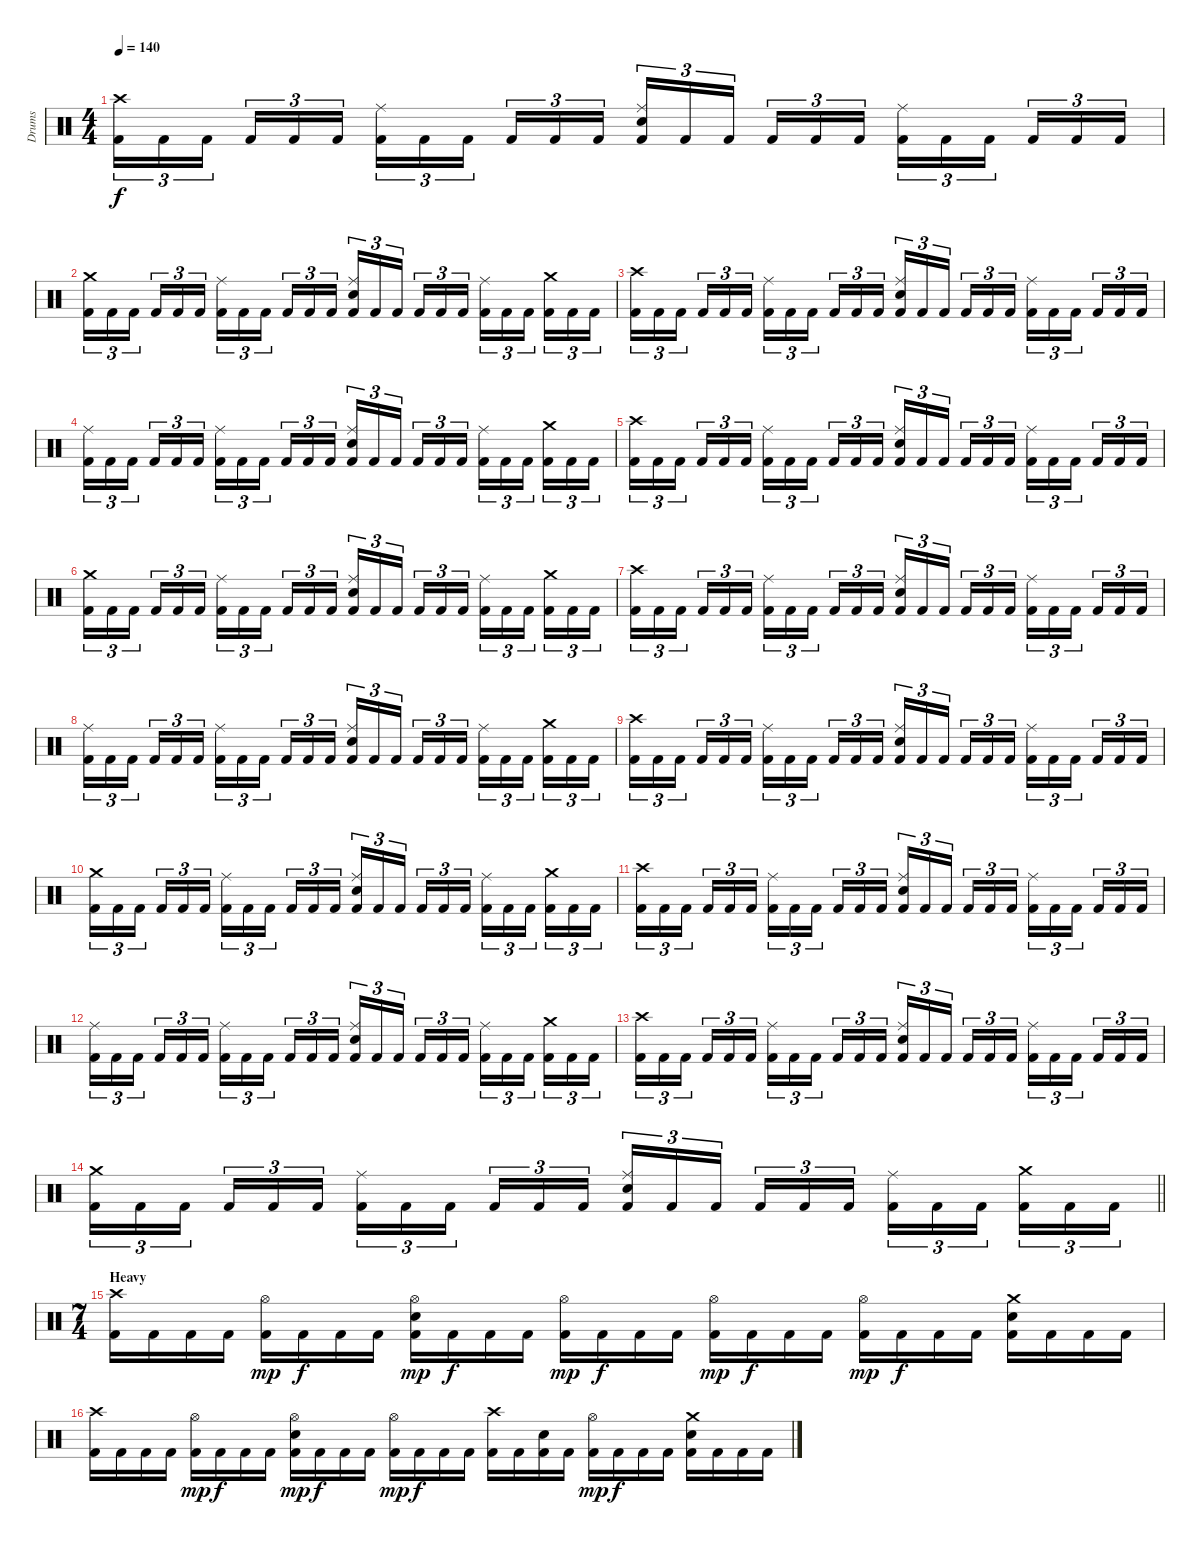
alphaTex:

\track ("Drums" "Drums") {instrument percussion}
\staff {score}
\articulation defaults
\ts (4 4)
\tempo 140
\clef neutral
\ks c
("Crash high (hit)" "Kick (hit) 2").16{tu (3 2) dy f} "Kick (hit) 2".16{tu (3 2)} "Kick (hit) 2".16{tu (3 2) beam splitsecondary} "Kick (hit) 2".16{tu (3 2)} "Kick (hit) 2".16{tu (3 2)} "Kick (hit) 2".16{tu (3 2)} ("Ride (middle)" "Kick (hit) 2").16{tu (3 2)} "Kick (hit) 2".16{tu (3 2)} "Kick (hit) 2".16{tu (3 2) beam splitsecondary} "Kick (hit) 2".16{tu (3 2)} "Kick (hit) 2".16{tu (3 2)} "Kick (hit) 2".16{tu (3 2)} ("Ride (middle)" "Snare (hit) 2" "Kick (hit) 2").16{tu (3 2)} "Kick (hit) 2".16{tu (3 2)} "Kick (hit) 2".16{tu (3 2) beam splitsecondary} "Kick (hit) 2".16{tu (3 2)} "Kick (hit) 2".16{tu (3 2)} "Kick (hit) 2".16{tu (3 2)} ("Ride (middle)" "Kick (hit) 2").16{tu (3 2)} "Kick (hit) 2".16{tu (3 2)} "Kick (hit) 2".16{tu (3 2) beam splitsecondary} "Kick (hit) 2".16{tu (3 2)} "Kick (hit) 2".16{tu (3 2)} "Kick (hit) 2".16{tu (3 2)} |
("Crash medium (hit)" "Kick (hit) 2").16{tu (3 2)} "Kick (hit) 2".16{tu (3 2)} "Kick (hit) 2".16{tu (3 2) beam splitsecondary} "Kick (hit) 2".16{tu (3 2)} "Kick (hit) 2".16{tu (3 2)} "Kick (hit) 2".16{tu (3 2)} ("Ride (middle)" "Kick (hit) 2").16{tu (3 2)} "Kick (hit) 2".16{tu (3 2)} "Kick (hit) 2".16{tu (3 2) beam splitsecondary} "Kick (hit) 2".16{tu (3 2)} "Kick (hit) 2".16{tu (3 2)} "Kick (hit) 2".16{tu (3 2)} ("Ride (middle)" "Snare (hit) 2" "Kick (hit) 2").16{tu (3 2)} "Kick (hit) 2".16{tu (3 2)} "Kick (hit) 2".16{tu (3 2) beam splitsecondary} "Kick (hit) 2".16{tu (3 2)} "Kick (hit) 2".16{tu (3 2)} "Kick (hit) 2".16{tu (3 2)} ("Ride (middle)" "Kick (hit) 2").16{tu (3 2)} "Kick (hit) 2".16{tu (3 2)} "Kick (hit) 2".16{tu (3 2) beam splitsecondary} ("Crash medium (hit)" "Kick (hit) 2").16{tu (3 2)} "Kick (hit) 2".16{tu (3 2)} "Kick (hit) 2".16{tu (3 2)} |
("Crash high (hit)" "Kick (hit) 2").16{tu (3 2)} "Kick (hit) 2".16{tu (3 2)} "Kick (hit) 2".16{tu (3 2) beam splitsecondary} "Kick (hit) 2".16{tu (3 2)} "Kick (hit) 2".16{tu (3 2)} "Kick (hit) 2".16{tu (3 2)} ("Ride (middle)" "Kick (hit) 2").16{tu (3 2)} "Kick (hit) 2".16{tu (3 2)} "Kick (hit) 2".16{tu (3 2) beam splitsecondary} "Kick (hit) 2".16{tu (3 2)} "Kick (hit) 2".16{tu (3 2)} "Kick (hit) 2".16{tu (3 2)} ("Ride (middle)" "Snare (hit) 2" "Kick (hit) 2").16{tu (3 2)} "Kick (hit) 2".16{tu (3 2)} "Kick (hit) 2".16{tu (3 2) beam splitsecondary} "Kick (hit) 2".16{tu (3 2)} "Kick (hit) 2".16{tu (3 2)} "Kick (hit) 2".16{tu (3 2)} ("Ride (middle)" "Kick (hit) 2").16{tu (3 2)} "Kick (hit) 2".16{tu (3 2)} "Kick (hit) 2".16{tu (3 2) beam splitsecondary} "Kick (hit) 2".16{tu (3 2)} "Kick (hit) 2".16{tu (3 2)} "Kick (hit) 2".16{tu (3 2)} |
("Ride (middle)" "Kick (hit) 2").16{tu (3 2)} "Kick (hit) 2".16{tu (3 2)} "Kick (hit) 2".16{tu (3 2) beam splitsecondary} "Kick (hit) 2".16{tu (3 2)} "Kick (hit) 2".16{tu (3 2)} "Kick (hit) 2".16{tu (3 2)} ("Ride (middle)" "Kick (hit) 2").16{tu (3 2)} "Kick (hit) 2".16{tu (3 2)} "Kick (hit) 2".16{tu (3 2) beam splitsecondary} "Kick (hit) 2".16{tu (3 2)} "Kick (hit) 2".16{tu (3 2)} "Kick (hit) 2".16{tu (3 2)} ("Ride (middle)" "Snare (hit) 2" "Kick (hit) 2").16{tu (3 2)} "Kick (hit) 2".16{tu (3 2)} "Kick (hit) 2".16{tu (3 2) beam splitsecondary} "Kick (hit) 2".16{tu (3 2)} "Kick (hit) 2".16{tu (3 2)} "Kick (hit) 2".16{tu (3 2)} ("Ride (middle)" "Kick (hit) 2").16{tu (3 2)} "Kick (hit) 2".16{tu (3 2)} "Kick (hit) 2".16{tu (3 2) beam splitsecondary} ("Crash medium (hit)" "Kick (hit) 2").16{tu (3 2)} "Kick (hit) 2".16{tu (3 2)} "Kick (hit) 2".16{tu (3 2)} |
("Crash high (hit)" "Kick (hit) 2").16{tu (3 2)} "Kick (hit) 2".16{tu (3 2)} "Kick (hit) 2".16{tu (3 2) beam splitsecondary} "Kick (hit) 2".16{tu (3 2)} "Kick (hit) 2".16{tu (3 2)} "Kick (hit) 2".16{tu (3 2)} ("Ride (middle)" "Kick (hit) 2").16{tu (3 2)} "Kick (hit) 2".16{tu (3 2)} "Kick (hit) 2".16{tu (3 2) beam splitsecondary} "Kick (hit) 2".16{tu (3 2)} "Kick (hit) 2".16{tu (3 2)} "Kick (hit) 2".16{tu (3 2)} ("Ride (middle)" "Snare (hit) 2" "Kick (hit) 2").16{tu (3 2)} "Kick (hit) 2".16{tu (3 2)} "Kick (hit) 2".16{tu (3 2) beam splitsecondary} "Kick (hit) 2".16{tu (3 2)} "Kick (hit) 2".16{tu (3 2)} "Kick (hit) 2".16{tu (3 2)} ("Ride (middle)" "Kick (hit) 2").16{tu (3 2)} "Kick (hit) 2".16{tu (3 2)} "Kick (hit) 2".16{tu (3 2) beam splitsecondary} "Kick (hit) 2".16{tu (3 2)} "Kick (hit) 2".16{tu (3 2)} "Kick (hit) 2".16{tu (3 2)} |
("Crash medium (hit)" "Kick (hit) 2").16{tu (3 2)} "Kick (hit) 2".16{tu (3 2)} "Kick (hit) 2".16{tu (3 2) beam splitsecondary} "Kick (hit) 2".16{tu (3 2)} "Kick (hit) 2".16{tu (3 2)} "Kick (hit) 2".16{tu (3 2)} ("Ride (middle)" "Kick (hit) 2").16{tu (3 2)} "Kick (hit) 2".16{tu (3 2)} "Kick (hit) 2".16{tu (3 2) beam splitsecondary} "Kick (hit) 2".16{tu (3 2)} "Kick (hit) 2".16{tu (3 2)} "Kick (hit) 2".16{tu (3 2)} ("Ride (middle)" "Snare (hit) 2" "Kick (hit) 2").16{tu (3 2)} "Kick (hit) 2".16{tu (3 2)} "Kick (hit) 2".16{tu (3 2) beam splitsecondary} "Kick (hit) 2".16{tu (3 2)} "Kick (hit) 2".16{tu (3 2)} "Kick (hit) 2".16{tu (3 2)} ("Ride (middle)" "Kick (hit) 2").16{tu (3 2)} "Kick (hit) 2".16{tu (3 2)} "Kick (hit) 2".16{tu (3 2) beam splitsecondary} ("Crash medium (hit)" "Kick (hit) 2").16{tu (3 2)} "Kick (hit) 2".16{tu (3 2)} "Kick (hit) 2".16{tu (3 2)} |
("Crash high (hit)" "Kick (hit) 2").16{tu (3 2)} "Kick (hit) 2".16{tu (3 2)} "Kick (hit) 2".16{tu (3 2) beam splitsecondary} "Kick (hit) 2".16{tu (3 2)} "Kick (hit) 2".16{tu (3 2)} "Kick (hit) 2".16{tu (3 2)} ("Ride (middle)" "Kick (hit) 2").16{tu (3 2)} "Kick (hit) 2".16{tu (3 2)} "Kick (hit) 2".16{tu (3 2) beam splitsecondary} "Kick (hit) 2".16{tu (3 2)} "Kick (hit) 2".16{tu (3 2)} "Kick (hit) 2".16{tu (3 2)} ("Ride (middle)" "Snare (hit) 2" "Kick (hit) 2").16{tu (3 2)} "Kick (hit) 2".16{tu (3 2)} "Kick (hit) 2".16{tu (3 2) beam splitsecondary} "Kick (hit) 2".16{tu (3 2)} "Kick (hit) 2".16{tu (3 2)} "Kick (hit) 2".16{tu (3 2)} ("Ride (middle)" "Kick (hit) 2").16{tu (3 2)} "Kick (hit) 2".16{tu (3 2)} "Kick (hit) 2".16{tu (3 2) beam splitsecondary} "Kick (hit) 2".16{tu (3 2)} "Kick (hit) 2".16{tu (3 2)} "Kick (hit) 2".16{tu (3 2)} |
("Ride (middle)" "Kick (hit) 2").16{tu (3 2)} "Kick (hit) 2".16{tu (3 2)} "Kick (hit) 2".16{tu (3 2) beam splitsecondary} "Kick (hit) 2".16{tu (3 2)} "Kick (hit) 2".16{tu (3 2)} "Kick (hit) 2".16{tu (3 2)} ("Ride (middle)" "Kick (hit) 2").16{tu (3 2)} "Kick (hit) 2".16{tu (3 2)} "Kick (hit) 2".16{tu (3 2) beam splitsecondary} "Kick (hit) 2".16{tu (3 2)} "Kick (hit) 2".16{tu (3 2)} "Kick (hit) 2".16{tu (3 2)} ("Ride (middle)" "Snare (hit) 2" "Kick (hit) 2").16{tu (3 2)} "Kick (hit) 2".16{tu (3 2)} "Kick (hit) 2".16{tu (3 2) beam splitsecondary} "Kick (hit) 2".16{tu (3 2)} "Kick (hit) 2".16{tu (3 2)} "Kick (hit) 2".16{tu (3 2)} ("Ride (middle)" "Kick (hit) 2").16{tu (3 2)} "Kick (hit) 2".16{tu (3 2)} "Kick (hit) 2".16{tu (3 2) beam splitsecondary} ("Crash medium (hit)" "Kick (hit) 2").16{tu (3 2)} "Kick (hit) 2".16{tu (3 2)} "Kick (hit) 2".16{tu (3 2)} |
("Crash high (hit)" "Kick (hit) 2").16{tu (3 2)} "Kick (hit) 2".16{tu (3 2)} "Kick (hit) 2".16{tu (3 2) beam splitsecondary} "Kick (hit) 2".16{tu (3 2)} "Kick (hit) 2".16{tu (3 2)} "Kick (hit) 2".16{tu (3 2)} ("Ride (middle)" "Kick (hit) 2").16{tu (3 2)} "Kick (hit) 2".16{tu (3 2)} "Kick (hit) 2".16{tu (3 2) beam splitsecondary} "Kick (hit) 2".16{tu (3 2)} "Kick (hit) 2".16{tu (3 2)} "Kick (hit) 2".16{tu (3 2)} ("Ride (middle)" "Snare (hit) 2" "Kick (hit) 2").16{tu (3 2)} "Kick (hit) 2".16{tu (3 2)} "Kick (hit) 2".16{tu (3 2) beam splitsecondary} "Kick (hit) 2".16{tu (3 2)} "Kick (hit) 2".16{tu (3 2)} "Kick (hit) 2".16{tu (3 2)} ("Ride (middle)" "Kick (hit) 2").16{tu (3 2)} "Kick (hit) 2".16{tu (3 2)} "Kick (hit) 2".16{tu (3 2) beam splitsecondary} "Kick (hit) 2".16{tu (3 2)} "Kick (hit) 2".16{tu (3 2)} "Kick (hit) 2".16{tu (3 2)} |
("Crash medium (hit)" "Kick (hit) 2").16{tu (3 2)} "Kick (hit) 2".16{tu (3 2)} "Kick (hit) 2".16{tu (3 2) beam splitsecondary} "Kick (hit) 2".16{tu (3 2)} "Kick (hit) 2".16{tu (3 2)} "Kick (hit) 2".16{tu (3 2)} ("Ride (middle)" "Kick (hit) 2").16{tu (3 2)} "Kick (hit) 2".16{tu (3 2)} "Kick (hit) 2".16{tu (3 2) beam splitsecondary} "Kick (hit) 2".16{tu (3 2)} "Kick (hit) 2".16{tu (3 2)} "Kick (hit) 2".16{tu (3 2)} ("Ride (middle)" "Snare (hit) 2" "Kick (hit) 2").16{tu (3 2)} "Kick (hit) 2".16{tu (3 2)} "Kick (hit) 2".16{tu (3 2) beam splitsecondary} "Kick (hit) 2".16{tu (3 2)} "Kick (hit) 2".16{tu (3 2)} "Kick (hit) 2".16{tu (3 2)} ("Ride (middle)" "Kick (hit) 2").16{tu (3 2)} "Kick (hit) 2".16{tu (3 2)} "Kick (hit) 2".16{tu (3 2) beam splitsecondary} ("Crash medium (hit)" "Kick (hit) 2").16{tu (3 2)} "Kick (hit) 2".16{tu (3 2)} "Kick (hit) 2".16{tu (3 2)} |
("Crash high (hit)" "Kick (hit) 2").16{tu (3 2)} "Kick (hit) 2".16{tu (3 2)} "Kick (hit) 2".16{tu (3 2) beam splitsecondary} "Kick (hit) 2".16{tu (3 2)} "Kick (hit) 2".16{tu (3 2)} "Kick (hit) 2".16{tu (3 2)} ("Ride (middle)" "Kick (hit) 2").16{tu (3 2)} "Kick (hit) 2".16{tu (3 2)} "Kick (hit) 2".16{tu (3 2) beam splitsecondary} "Kick (hit) 2".16{tu (3 2)} "Kick (hit) 2".16{tu (3 2)} "Kick (hit) 2".16{tu (3 2)} ("Ride (middle)" "Snare (hit) 2" "Kick (hit) 2").16{tu (3 2)} "Kick (hit) 2".16{tu (3 2)} "Kick (hit) 2".16{tu (3 2) beam splitsecondary} "Kick (hit) 2".16{tu (3 2)} "Kick (hit) 2".16{tu (3 2)} "Kick (hit) 2".16{tu (3 2)} ("Ride (middle)" "Kick (hit) 2").16{tu (3 2)} "Kick (hit) 2".16{tu (3 2)} "Kick (hit) 2".16{tu (3 2) beam splitsecondary} "Kick (hit) 2".16{tu (3 2)} "Kick (hit) 2".16{tu (3 2)} "Kick (hit) 2".16{tu (3 2)} |
("Ride (middle)" "Kick (hit) 2").16{tu (3 2)} "Kick (hit) 2".16{tu (3 2)} "Kick (hit) 2".16{tu (3 2) beam splitsecondary} "Kick (hit) 2".16{tu (3 2)} "Kick (hit) 2".16{tu (3 2)} "Kick (hit) 2".16{tu (3 2)} ("Ride (middle)" "Kick (hit) 2").16{tu (3 2)} "Kick (hit) 2".16{tu (3 2)} "Kick (hit) 2".16{tu (3 2) beam splitsecondary} "Kick (hit) 2".16{tu (3 2)} "Kick (hit) 2".16{tu (3 2)} "Kick (hit) 2".16{tu (3 2)} ("Ride (middle)" "Snare (hit) 2" "Kick (hit) 2").16{tu (3 2)} "Kick (hit) 2".16{tu (3 2)} "Kick (hit) 2".16{tu (3 2) beam splitsecondary} "Kick (hit) 2".16{tu (3 2)} "Kick (hit) 2".16{tu (3 2)} "Kick (hit) 2".16{tu (3 2)} ("Ride (middle)" "Kick (hit) 2").16{tu (3 2)} "Kick (hit) 2".16{tu (3 2)} "Kick (hit) 2".16{tu (3 2) beam splitsecondary} ("Crash medium (hit)" "Kick (hit) 2").16{tu (3 2)} "Kick (hit) 2".16{tu (3 2)} "Kick (hit) 2".16{tu (3 2)} |
("Crash high (hit)" "Kick (hit) 2").16{tu (3 2)} "Kick (hit) 2".16{tu (3 2)} "Kick (hit) 2".16{tu (3 2) beam splitsecondary} "Kick (hit) 2".16{tu (3 2)} "Kick (hit) 2".16{tu (3 2)} "Kick (hit) 2".16{tu (3 2)} ("Ride (middle)" "Kick (hit) 2").16{tu (3 2)} "Kick (hit) 2".16{tu (3 2)} "Kick (hit) 2".16{tu (3 2) beam splitsecondary} "Kick (hit) 2".16{tu (3 2)} "Kick (hit) 2".16{tu (3 2)} "Kick (hit) 2".16{tu (3 2)} ("Ride (middle)" "Snare (hit) 2" "Kick (hit) 2").16{tu (3 2)} "Kick (hit) 2".16{tu (3 2)} "Kick (hit) 2".16{tu (3 2) beam splitsecondary} "Kick (hit) 2".16{tu (3 2)} "Kick (hit) 2".16{tu (3 2)} "Kick (hit) 2".16{tu (3 2)} ("Ride (middle)" "Kick (hit) 2").16{tu (3 2)} "Kick (hit) 2".16{tu (3 2)} "Kick (hit) 2".16{tu (3 2) beam splitsecondary} "Kick (hit) 2".16{tu (3 2)} "Kick (hit) 2".16{tu (3 2)} "Kick (hit) 2".16{tu (3 2)} |
\barLineRight lightlight
("Crash medium (hit)" "Kick (hit) 2").16{tu (3 2)} "Kick (hit) 2".16{tu (3 2)} "Kick (hit) 2".16{tu (3 2) beam splitsecondary} "Kick (hit) 2".16{tu (3 2)} "Kick (hit) 2".16{tu (3 2)} "Kick (hit) 2".16{tu (3 2)} ("Ride (middle)" "Kick (hit) 2").16{tu (3 2)} "Kick (hit) 2".16{tu (3 2)} "Kick (hit) 2".16{tu (3 2) beam splitsecondary} "Kick (hit) 2".16{tu (3 2)} "Kick (hit) 2".16{tu (3 2)} "Kick (hit) 2".16{tu (3 2)} ("Ride (middle)" "Snare (hit) 2" "Kick (hit) 2").16{tu (3 2)} "Kick (hit) 2".16{tu (3 2)} "Kick (hit) 2".16{tu (3 2) beam splitsecondary} "Kick (hit) 2".16{tu (3 2)} "Kick (hit) 2".16{tu (3 2)} "Kick (hit) 2".16{tu (3 2)} ("Ride (middle)" "Kick (hit) 2").16{tu (3 2)} "Kick (hit) 2".16{tu (3 2)} "Kick (hit) 2".16{tu (3 2) beam splitsecondary} ("Crash medium (hit)" "Kick (hit) 2").16{tu (3 2)} "Kick (hit) 2".16{tu (3 2)} "Kick (hit) 2".16{tu (3 2)} |
\ts (7 4)
\section ("" "Heavy")
("Crash high (hit)" "Kick (hit) 2").16 "Kick (hit) 2".16 "Kick (hit) 2".16 "Kick (hit) 2".16 ("Hi-Hat (open)" "Kick (hit) 2").16{dy mp} "Kick (hit) 2".16{dy f} "Kick (hit) 2".16 "Kick (hit) 2".16 ("Hi-Hat (open)" "Snare (hit) 2" "Kick (hit) 2").16{dy mp} "Kick (hit) 2".16{dy f} "Kick (hit) 2".16 "Kick (hit) 2".16 ("Hi-Hat (open)" "Kick (hit) 2").16{dy mp} "Kick (hit) 2".16{dy f} "Kick (hit) 2".16 "Kick (hit) 2".16 ("Hi-Hat (open)" "Kick (hit) 2").16{dy mp} "Kick (hit) 2".16{dy f} "Kick (hit) 2".16 "Kick (hit) 2".16 ("Hi-Hat (open)" "Kick (hit) 2").16{dy mp} "Kick (hit) 2".16{dy f} "Kick (hit) 2".16 "Kick (hit) 2".16 ("Crash medium (hit)" "Snare (hit) 2" "Kick (hit) 2").16 "Kick (hit) 2".16 "Kick (hit) 2".16 "Kick (hit) 2".16 |
("Crash high (hit)" "Kick (hit) 2").16 "Kick (hit) 2".16 "Kick (hit) 2".16 "Kick (hit) 2".16 ("Hi-Hat (open)" "Kick (hit) 2").16{dy mp} "Kick (hit) 2".16{dy f} "Kick (hit) 2".16 "Kick (hit) 2".16 ("Hi-Hat (open)" "Snare (hit) 2" "Kick (hit) 2").16{dy mp} "Kick (hit) 2".16{dy f} "Kick (hit) 2".16 "Kick (hit) 2".16 ("Hi-Hat (open)" "Kick (hit) 2").16{dy mp} "Kick (hit) 2".16{dy f} "Kick (hit) 2".16 "Kick (hit) 2".16 ("Crash high (hit)" "Kick (hit) 2").16 "Kick (hit) 2".16 ("Snare (hit) 2" "Kick (hit) 2").16 "Kick (hit) 2".16 ("Hi-Hat (open)" "Kick (hit) 2").16{dy mp} "Kick (hit) 2".16{dy f} "Kick (hit) 2".16 "Kick (hit) 2".16 ("Crash medium (hit)" "Snare (hit) 2" "Kick (hit) 2").16 "Kick (hit) 2".16 "Kick (hit) 2".16 "Kick (hit) 2".16
